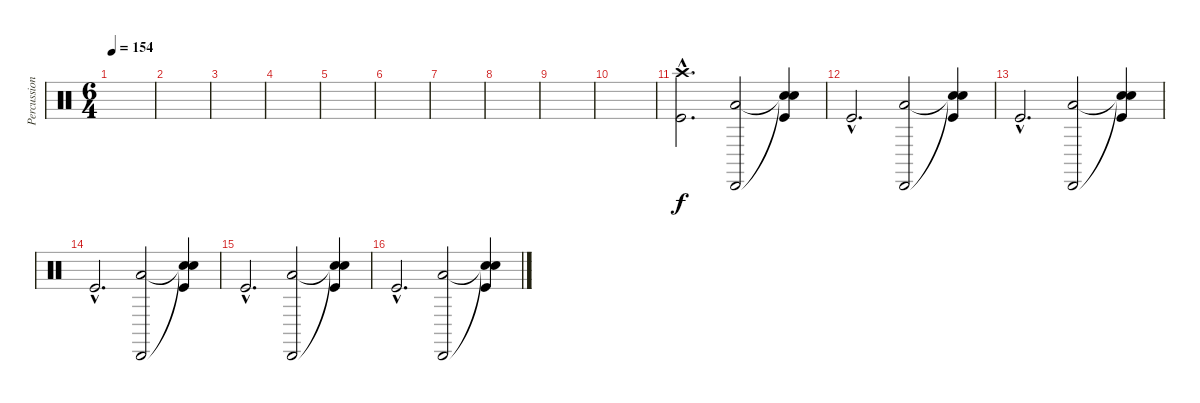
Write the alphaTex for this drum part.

\track ("Percussions" "Percussion") {instrument percussion}
\staff {score}
\articulation defaults
\ts (6 4)
\tempo 154
\clef neutral
\ks c
|
|
|
|
|
|
|
|
|
|
("Crash high (hit)"{hac} "Kick (hit)"{hac}).2{d} ("Cabasa (hit)" "Low Tom (hit)").2 ("Snare (hit)"{t} "Snare (hit)"{t} "Kick (hit)").4 |
"Kick (hit)"{hac}.2{d} ("Cabasa (hit)" "Low Tom (hit)").2 ("Snare (hit)"{t} "Snare (hit)"{t} "Kick (hit)").4 |
"Kick (hit)"{hac}.2{d} ("Cabasa (hit)" "Low Tom (hit)").2 ("Snare (hit)"{t} "Snare (hit)"{t} "Kick (hit)").4 |
"Kick (hit)"{hac}.2{d} ("Cabasa (hit)" "Low Tom (hit)").2 ("Snare (hit)"{t} "Snare (hit)"{t} "Kick (hit)").4 |
"Kick (hit)"{hac}.2{d} ("Cabasa (hit)" "Low Tom (hit)").2 ("Snare (hit)"{t} "Snare (hit)"{t} "Kick (hit)").4 |
"Kick (hit)"{hac}.2{d} ("Cabasa (hit)" "Low Tom (hit)").2 ("Snare (hit)"{t} "Snare (hit)"{t} "Kick (hit)").4
